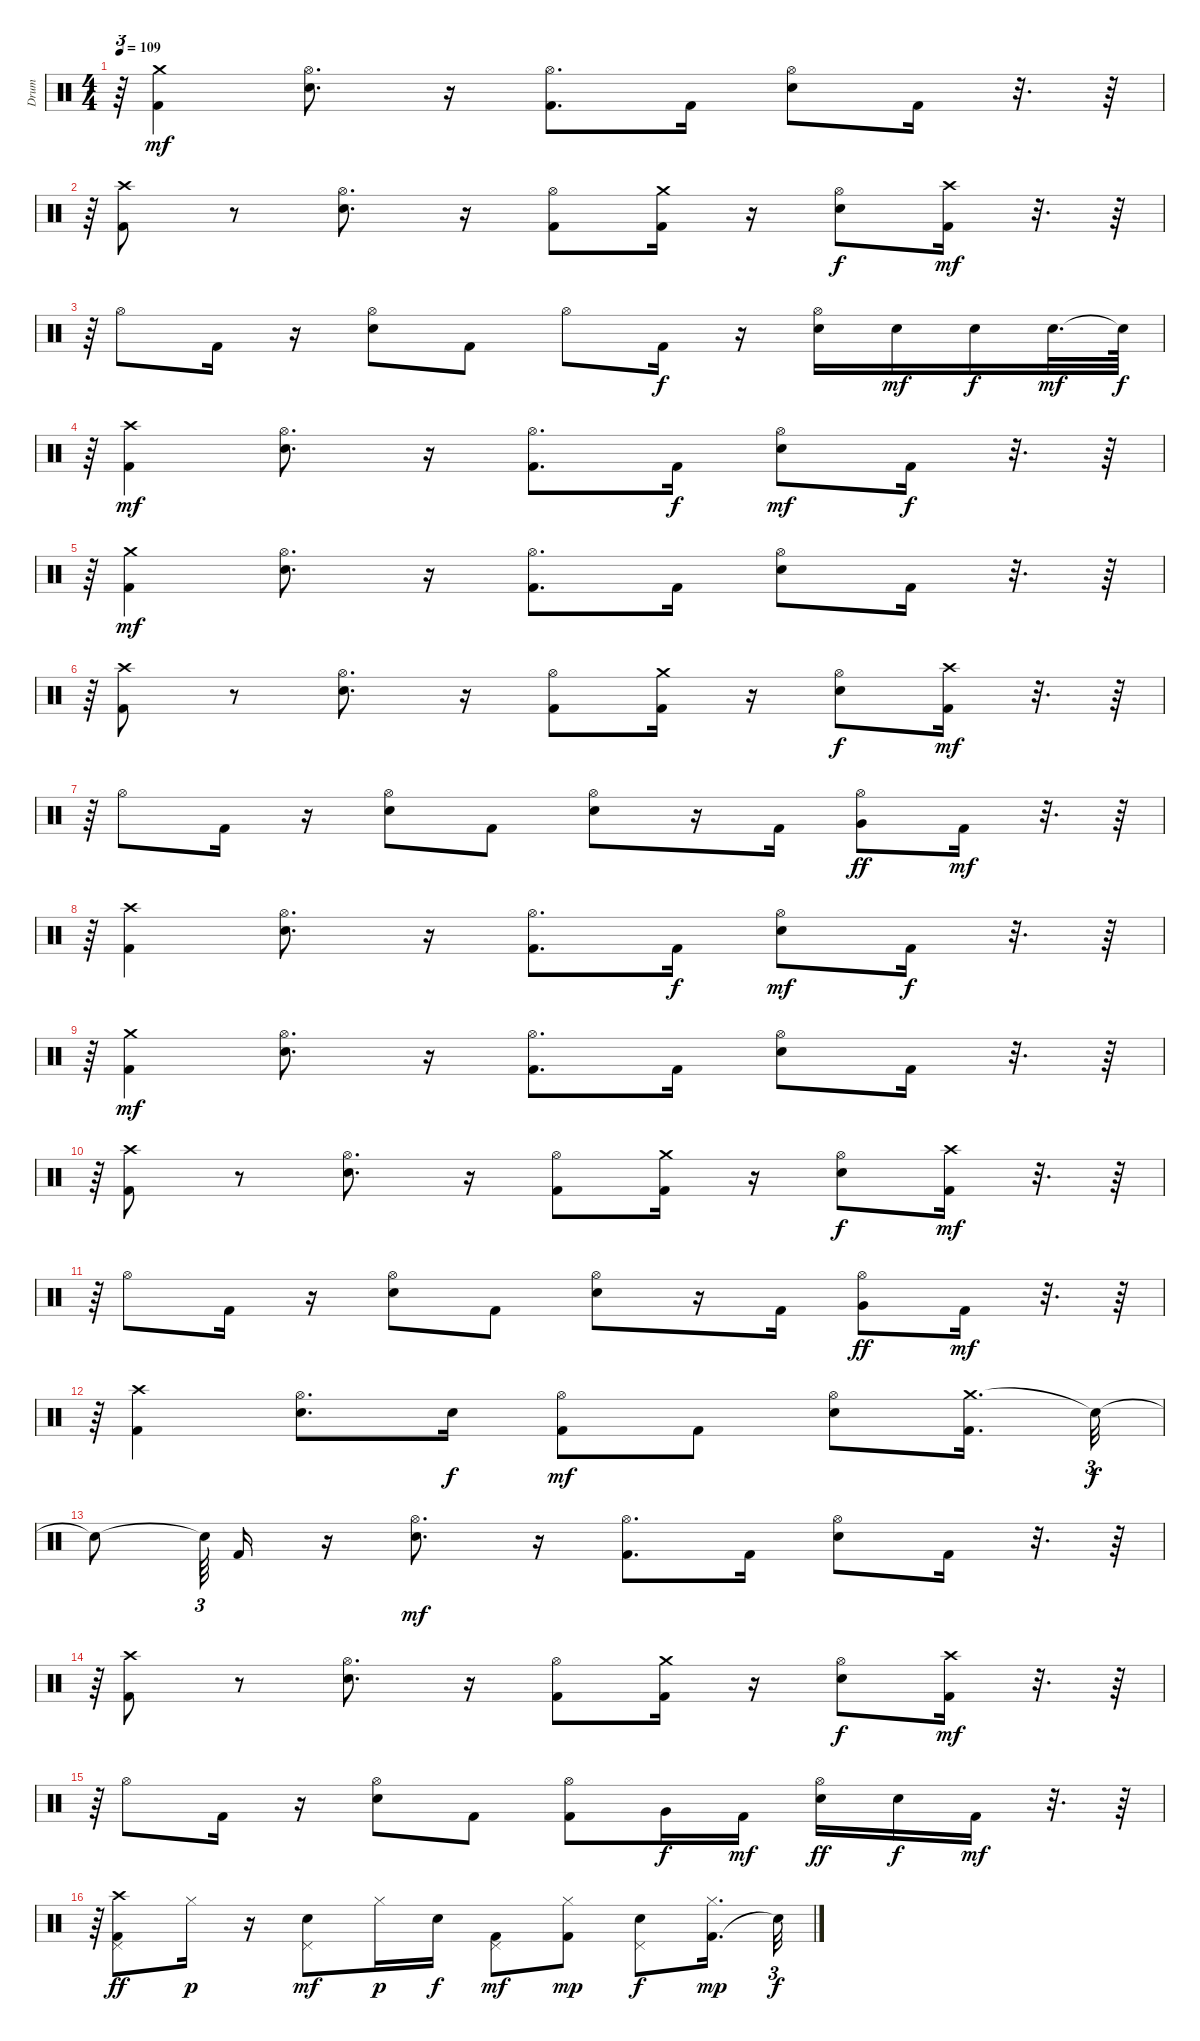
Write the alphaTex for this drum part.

\track ("Drum" "Drum") {instrument percussion}
\staff {score}
\articulation defaults
\ts (4 4)
\tempo 109
\clef neutral
\ks c
r.64{tu (3 2) dy f} ("Kick (hit) 2" "Crash medium (hit)").4{dy mf} ("Hi-Hat (open)" "Electric Snare (hit)").8{d} r.16 ("Hi-Hat (open)" "Kick (hit) 2").8{d} "Kick (hit) 2".16 ("Hi-Hat (open)" "Electric Snare (hit)").8 "Kick (hit) 2".16 r.32{d} r.64 |
r.64{tu (3 2)} ("Kick (hit) 2" "Crash high (hit)").8 r.8 ("Hi-Hat (open)" "Electric Snare (hit)").8{d} r.16 ("Hi-Hat (open)" "Kick (hit) 2").8 ("Kick (hit) 2" "Crash medium (hit)").16 r.16 ("Hi-Hat (open)" "Electric Snare (hit)").8{dy f} ("Kick (hit) 2" "Crash high (hit)").16{dy mf} r.32{d} r.64 |
r.64{tu (3 2)} "Hi-Hat (open)".8 "Kick (hit) 2".16 r.16 ("Electric Snare (hit)" "Hi-Hat (open)").8 "Kick (hit) 2".8 "Hi-Hat (open)".8 "Kick (hit) 2".16{dy f} r.16 ("Hi-Hat (open)" "Electric Snare (hit)").16 "Electric Snare (hit)".16{dy mf} "Electric Snare (hit)".16{dy f} "Electric Snare (hit)".32{d dy mf} "Snare (hit)"{t}.64{dy f} |
r.64{tu (3 2)} ("Kick (hit) 2" "Crash high (hit)").4{dy mf} ("Electric Snare (hit)" "Hi-Hat (open)").8{d} r.16 ("Kick (hit) 2" "Hi-Hat (open)").8{d} "Kick (hit) 2".16{dy f} ("Electric Snare (hit)" "Hi-Hat (open)").8{dy mf} "Kick (hit) 2".16{dy f} r.32{d} r.64 |
r.64{tu (3 2)} ("Crash medium (hit)" "Kick (hit) 2").4{dy mf} ("Hi-Hat (open)" "Electric Snare (hit)").8{d} r.16 ("Hi-Hat (open)" "Kick (hit) 2").8{d} "Kick (hit) 2".16 ("Electric Snare (hit)" "Hi-Hat (open)").8 "Kick (hit) 2".16 r.32{d} r.64 |
r.64{tu (3 2)} ("Kick (hit) 2" "Crash high (hit)").8 r.8 ("Electric Snare (hit)" "Hi-Hat (open)").8{d} r.16 ("Kick (hit) 2" "Hi-Hat (open)").8 ("Kick (hit) 2" "Crash medium (hit)").16 r.16 ("Electric Snare (hit)" "Hi-Hat (open)").8{dy f} ("Kick (hit) 2" "Crash high (hit)").16{dy mf} r.32{d} r.64 |
r.64{tu (3 2)} "Hi-Hat (open)".8 "Kick (hit) 2".16 r.16 ("Hi-Hat (open)" "Electric Snare (hit)").8 "Kick (hit) 2".8 ("Electric Snare (hit)" "Hi-Hat (open)").8 r.16 "Kick (hit) 2".16 ("Hi-Hat (open)" "Very Low Tom (hit)").8{dy ff} "Kick (hit) 2".16{dy mf} r.32{d} r.64 |
r.64{tu (3 2)} ("Crash high (hit)" "Kick (hit) 2").4 ("Electric Snare (hit)" "Hi-Hat (open)").8{d} r.16 ("Hi-Hat (open)" "Kick (hit) 2").8{d} "Kick (hit) 2".16{dy f} ("Electric Snare (hit)" "Hi-Hat (open)").8{dy mf} "Kick (hit) 2".16{dy f} r.32{d} r.64 |
r.64{tu (3 2)} ("Kick (hit) 2" "Crash medium (hit)").4{dy mf} ("Electric Snare (hit)" "Hi-Hat (open)").8{d} r.16 ("Hi-Hat (open)" "Kick (hit) 2").8{d} "Kick (hit) 2".16 ("Electric Snare (hit)" "Hi-Hat (open)").8 "Kick (hit) 2".16 r.32{d} r.64 |
r.64{tu (3 2)} ("Kick (hit) 2" "Crash high (hit)").8 r.8 ("Hi-Hat (open)" "Electric Snare (hit)").8{d} r.16 ("Hi-Hat (open)" "Kick (hit) 2").8 ("Crash medium (hit)" "Kick (hit) 2").16 r.16 ("Electric Snare (hit)" "Hi-Hat (open)").8{dy f} ("Crash high (hit)" "Kick (hit) 2").16{dy mf} r.32{d} r.64 |
r.64{tu (3 2)} "Hi-Hat (open)".8 "Kick (hit) 2".16 r.16 ("Electric Snare (hit)" "Hi-Hat (open)").8 "Kick (hit) 2".8 ("Hi-Hat (open)" "Electric Snare (hit)").8 r.16 "Kick (hit) 2".16 ("Very Low Tom (hit)" "Hi-Hat (open)").8{dy ff} "Kick (hit) 2".16{dy mf} r.32{d} r.64 |
r.64{tu (3 2)} ("Kick (hit) 2" "Crash high (hit)").4 ("Electric Snare (hit)" "Hi-Hat (open)").8{d} "Electric Snare (hit)".16{dy f} ("Kick (hit) 2" "Hi-Hat (open)").8{dy mf} "Kick (hit) 2".8 ("Hi-Hat (open)" "Electric Snare (hit)").8 ("Crash medium (hit)" "Kick (hit) 2").16{d} "Snare (hit)"{t}.32{tu (3 2) dy f} |
"Snare (hit)"{t}.8 "Snare (hit)"{t}.64{tu (3 2) beam splitsecondary} "Kick (hit) 2".16 r.16 ("Hi-Hat (open)" "Electric Snare (hit)").8{d dy mf} r.16 ("Hi-Hat (open)" "Kick (hit) 2").8{d} "Kick (hit) 2".16 ("Electric Snare (hit)" "Hi-Hat (open)").8 "Kick (hit) 2".16 r.32{d} r.64 |
r.64{tu (3 2)} ("Kick (hit) 2" "Crash high (hit)").8 r.8 ("Electric Snare (hit)" "Hi-Hat (open)").8{d} r.16 ("Kick (hit) 2" "Hi-Hat (open)").8 ("Kick (hit) 2" "Crash medium (hit)").16 r.16 ("Hi-Hat (open)" "Electric Snare (hit)").8{dy f} ("Kick (hit) 2" "Crash high (hit)").16{dy mf} r.32{d} r.64 |
r.64{tu (3 2)} "Hi-Hat (open)".8 "Kick (hit) 2".16 r.16 ("Electric Snare (hit)" "Hi-Hat (open)").8 "Kick (hit) 2".8 ("Hi-Hat (open)" "Kick (hit) 2").8 "Very Low Tom (hit)".16{dy f} "Kick (hit) 2".16{dy mf} ("Electric Snare (hit)" "Hi-Hat (open)").16{dy ff} "Electric Snare (hit)".16{dy f} "Kick (hit) 2".16{dy mf} r.32{d} r.64 |
r.64{tu (3 2)} ("Crash high (hit)" "Kick (hit) 2" "Pedal Hi-Hat (hit)").8{dy ff} "Hi-Hat (closed)".16{dy p} r.16 ("Pedal Hi-Hat (hit)" "Electric Snare (hit)").8{dy mf} "Hi-Hat (closed)".16{dy p} "Electric Snare (hit)".16{dy f} ("Pedal Hi-Hat (hit)" "Kick (hit) 2").8{dy mf} ("Kick (hit) 2" "Hi-Hat (closed)").8{dy mp} ("Electric Snare (hit)" "Pedal Hi-Hat (hit)").8{dy f} ("Kick (hit) 2" "Hi-Hat (closed)").16{d dy mp} "Snare (hit)"{t}.32{tu (3 2) dy f}
